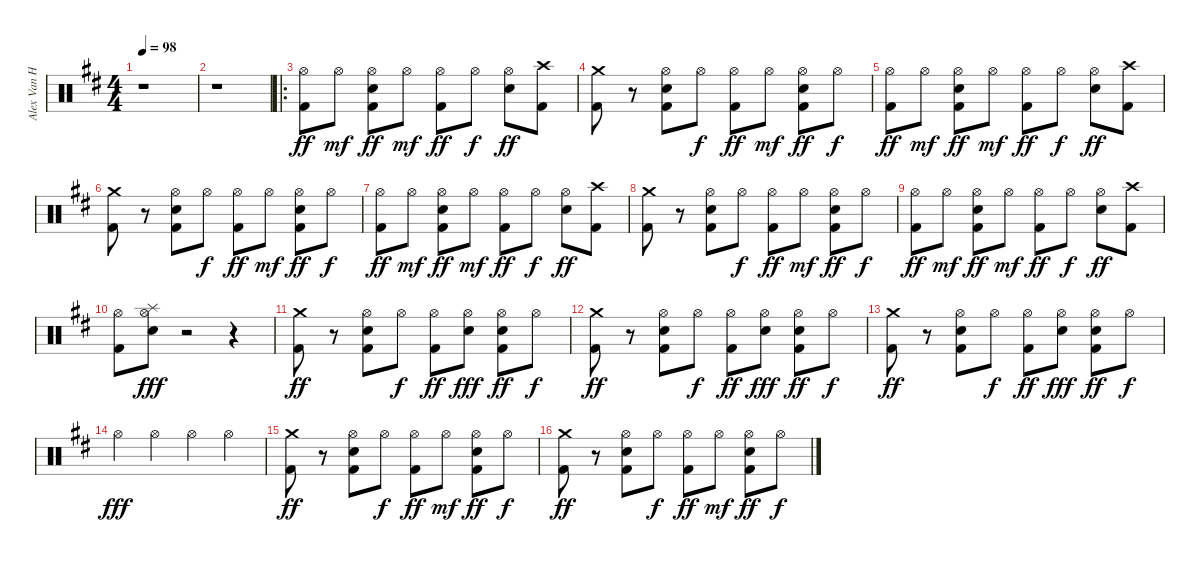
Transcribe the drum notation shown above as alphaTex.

\track ("Alex Van Halen" "Alex Van H") {instrument percussion}
\staff {score}
\articulation defaults
\ts (4 4)
\tempo 98
\clef neutral
\ks bminor
r.1{dy ff} |
r.1 |
\ro
("Kick (hit) 2" "Hi-Hat (open)").8 "Hi-Hat (open)".8{dy mf} ("Hi-Hat (open)" "Kick (hit) 2" "Electric Snare (hit)").8{dy ff} "Hi-Hat (open)".8{dy mf} ("Hi-Hat (open)" "Kick (hit) 2").8{dy ff} "Hi-Hat (open)".8{dy f} ("Hi-Hat (open)" "Electric Snare (hit)").8{dy ff} ("Crash high (hit)" "Kick (hit) 2").8 |
("Kick (hit) 2" "Crash medium (hit)").8 r.8 ("Hi-Hat (open)" "Kick (hit) 2" "Electric Snare (hit)").8 "Hi-Hat (open)".8{dy f} ("Kick (hit) 2" "Hi-Hat (open)").8{dy ff} "Hi-Hat (open)".8{dy mf} ("Kick (hit) 2" "Hi-Hat (open)" "Electric Snare (hit)").8{dy ff} "Hi-Hat (open)".8{dy f} |
("Kick (hit) 2" "Hi-Hat (open)").8{dy ff} "Hi-Hat (open)".8{dy mf} ("Hi-Hat (open)" "Kick (hit) 2" "Electric Snare (hit)").8{dy ff} "Hi-Hat (open)".8{dy mf} ("Hi-Hat (open)" "Kick (hit) 2").8{dy ff} "Hi-Hat (open)".8{dy f} ("Hi-Hat (open)" "Electric Snare (hit)").8{dy ff} ("Crash high (hit)" "Kick (hit) 2").8 |
("Kick (hit) 2" "Crash medium (hit)").8 r.8 ("Hi-Hat (open)" "Kick (hit) 2" "Electric Snare (hit)").8 "Hi-Hat (open)".8{dy f} ("Kick (hit) 2" "Hi-Hat (open)").8{dy ff} "Hi-Hat (open)".8{dy mf} ("Kick (hit) 2" "Hi-Hat (open)" "Electric Snare (hit)").8{dy ff} "Hi-Hat (open)".8{dy f} |
("Kick (hit) 2" "Hi-Hat (open)").8{dy ff} "Hi-Hat (open)".8{dy mf} ("Hi-Hat (open)" "Kick (hit) 2" "Electric Snare (hit)").8{dy ff} "Hi-Hat (open)".8{dy mf} ("Hi-Hat (open)" "Kick (hit) 2").8{dy ff} "Hi-Hat (open)".8{dy f} ("Hi-Hat (open)" "Electric Snare (hit)").8{dy ff} ("Crash high (hit)" "Kick (hit) 2").8 |
("Kick (hit) 2" "Crash medium (hit)").8 r.8 ("Hi-Hat (open)" "Kick (hit) 2" "Electric Snare (hit)").8 "Hi-Hat (open)".8{dy f} ("Kick (hit) 2" "Hi-Hat (open)").8{dy ff} "Hi-Hat (open)".8{dy mf} ("Kick (hit) 2" "Hi-Hat (open)" "Electric Snare (hit)").8{dy ff} "Hi-Hat (open)".8{dy f} |
("Kick (hit) 2" "Hi-Hat (open)").8{dy ff} "Hi-Hat (open)".8{dy mf} ("Hi-Hat (open)" "Kick (hit) 2" "Electric Snare (hit)").8{dy ff} "Hi-Hat (open)".8{dy mf} ("Hi-Hat (open)" "Kick (hit) 2").8{dy ff} "Hi-Hat (open)".8{dy f} ("Hi-Hat (open)" "Electric Snare (hit)").8{dy ff} ("Crash high (hit)" "Kick (hit) 2").8 |
("Hi-Hat (open)" "Kick (hit) 2").8 ("Hi-Hat (open)" "Electric Snare (hit)" "Splash (hit)").8{dy fff} r.2 r.4 |
("Kick (hit) 2" "Crash medium (hit)").8{dy ff} r.8 ("Hi-Hat (open)" "Kick (hit) 2" "Electric Snare (hit)").8 "Hi-Hat (open)".8{dy f} ("Kick (hit) 2" "Hi-Hat (open)").8{dy ff} ("Hi-Hat (open)" "Electric Snare (hit)").8{dy fff} ("Kick (hit) 2" "Hi-Hat (open)" "Electric Snare (hit)").8{dy ff} "Hi-Hat (open)".8{dy f} |
("Kick (hit) 2" "Crash medium (hit)").8{dy ff} r.8 ("Hi-Hat (open)" "Kick (hit) 2" "Electric Snare (hit)").8 "Hi-Hat (open)".8{dy f} ("Kick (hit) 2" "Hi-Hat (open)").8{dy ff} ("Hi-Hat (open)" "Electric Snare (hit)").8{dy fff} ("Kick (hit) 2" "Hi-Hat (open)" "Electric Snare (hit)").8{dy ff} "Hi-Hat (open)".8{dy f} |
("Kick (hit) 2" "Crash medium (hit)").8{dy ff} r.8 ("Hi-Hat (open)" "Kick (hit) 2" "Electric Snare (hit)").8 "Hi-Hat (open)".8{dy f} ("Kick (hit) 2" "Hi-Hat (open)").8{dy ff} ("Hi-Hat (open)" "Electric Snare (hit)").8{dy fff} ("Kick (hit) 2" "Hi-Hat (open)" "Electric Snare (hit)").8{dy ff} "Hi-Hat (open)".8{dy f} |
"Hi-Hat (open)".4{dy fff} "Hi-Hat (open)".4 "Hi-Hat (open)".4 "Hi-Hat (open)".4 |
("Kick (hit) 2" "Crash medium (hit)").8{dy ff} r.8 ("Hi-Hat (open)" "Kick (hit) 2" "Electric Snare (hit)").8 "Hi-Hat (open)".8{dy f} ("Kick (hit) 2" "Hi-Hat (open)").8{dy ff} "Hi-Hat (open)".8{dy mf} ("Kick (hit) 2" "Hi-Hat (open)" "Electric Snare (hit)").8{dy ff} "Hi-Hat (open)".8{dy f} |
("Kick (hit) 2" "Crash medium (hit)").8{dy ff} r.8 ("Hi-Hat (open)" "Kick (hit) 2" "Electric Snare (hit)").8 "Hi-Hat (open)".8{dy f} ("Kick (hit) 2" "Hi-Hat (open)").8{dy ff} "Hi-Hat (open)".8{dy mf} ("Kick (hit) 2" "Hi-Hat (open)" "Electric Snare (hit)").8{dy ff} "Hi-Hat (open)".8{dy f}
